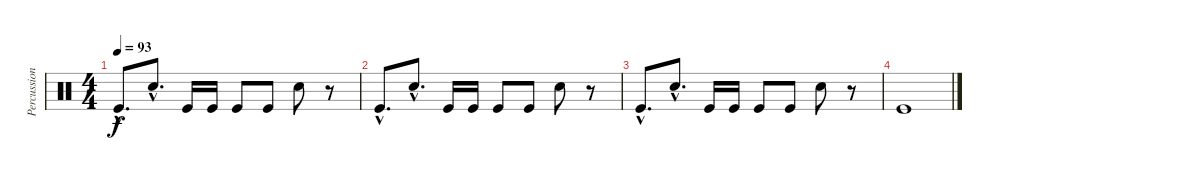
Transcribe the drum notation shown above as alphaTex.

\track ("Percussion" "Percussion") {instrument percussion}
\staff {score}
\articulation defaults
\ts (4 4)
\tempo 93
\clef neutral
\ks c "Kick (hit)"{hac}.8{d dy f} "Electric Snare (hit)"{hac}.8{d} "Kick (hit)".16 "Kick (hit)".16 "Kick (hit)".8 "Kick (hit)".8 "Electric Snare (hit)".8
r.8 |
"Kick (hit)"{hac}.8{d} "Electric Snare (hit)"{hac}.8{d} "Kick (hit)".16 "Kick (hit)".16 "Kick (hit)".8 "Kick (hit)".8 "Electric Snare (hit)".8 r.8 |
"Kick (hit)"{hac}.8{d} "Electric Snare (hit)"{hac}.8{d} "Kick (hit)".16 "Kick (hit)".16 "Kick (hit)".8 "Kick (hit)".8 "Electric Snare (hit)".8 r.8 |
"Kick (hit)".1
